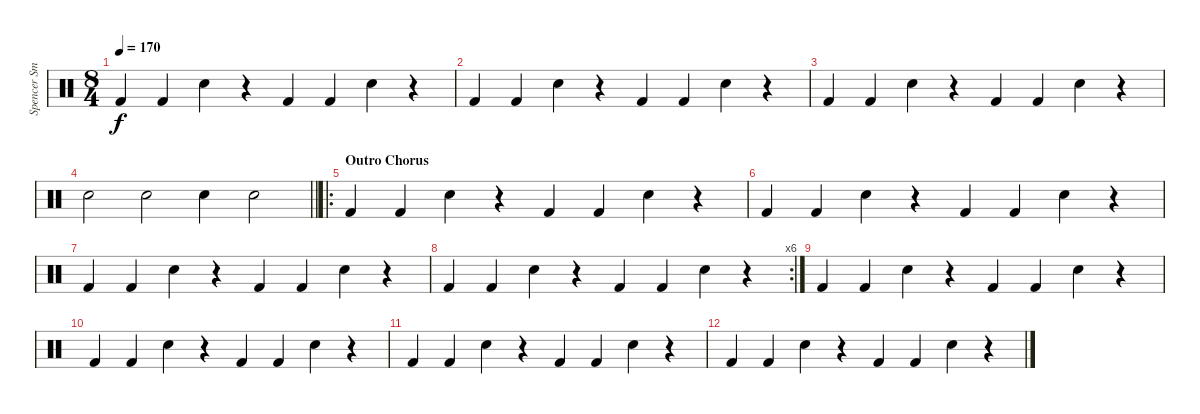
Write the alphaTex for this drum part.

\track ("Spencer Smith" "Spencer Sm") {instrument percussion}
\staff {score}
\articulation defaults
\ts (8 4)
\tempo 170
\clef neutral
\ks c "Kick (hit) 2".4{dy f} "Kick (hit) 2".4 "Snare (hit) 2".4
r.4 "Kick (hit) 2".4 "Kick (hit) 2".4 "Snare (hit) 2".4 r.4 |
"Kick (hit) 2".4 "Kick (hit) 2".4 "Snare (hit) 2".4 r.4 "Kick (hit) 2".4 "Kick (hit) 2".4 "Snare (hit) 2".4 r.4 |
"Kick (hit) 2".4 "Kick (hit) 2".4 "Snare (hit) 2".4 r.4 "Kick (hit) 2".4 "Kick (hit) 2".4 "Snare (hit) 2".4 r.4 |
\barLineRight lightlight "Snare (hit) 2".2 "Snare (hit) 2".2 "Snare (hit) 2".4 "Snare (hit) 2".2
|
\ro
\section ("" "Outro Chorus")
"Kick (hit) 2".4 "Kick (hit) 2".4 "Snare (hit) 2".4 r.4 "Kick (hit) 2".4 "Kick (hit) 2".4 "Snare (hit) 2".4 r.4 |
"Kick (hit) 2".4 "Kick (hit) 2".4 "Snare (hit) 2".4 r.4 "Kick (hit) 2".4 "Kick (hit) 2".4 "Snare (hit) 2".4 r.4 |
"Kick (hit) 2".4 "Kick (hit) 2".4 "Snare (hit) 2".4 r.4 "Kick (hit) 2".4 "Kick (hit) 2".4 "Snare (hit) 2".4 r.4 |
\rc 6 "Kick (hit) 2".4 "Kick (hit) 2".4 "Snare (hit) 2".4
r.4 "Kick (hit) 2".4 "Kick (hit) 2".4 "Snare (hit) 2".4 r.4 |
"Kick (hit) 2".4 "Kick (hit) 2".4 "Snare (hit) 2".4 r.4 "Kick (hit) 2".4 "Kick (hit) 2".4 "Snare (hit) 2".4 r.4 |
"Kick (hit) 2".4 "Kick (hit) 2".4 "Snare (hit) 2".4 r.4 "Kick (hit) 2".4 "Kick (hit) 2".4 "Snare (hit) 2".4 r.4 |
"Kick (hit) 2".4 "Kick (hit) 2".4 "Snare (hit) 2".4 r.4 "Kick (hit) 2".4 "Kick (hit) 2".4 "Snare (hit) 2".4 r.4 |
"Kick (hit) 2".4 "Kick (hit) 2".4 "Snare (hit) 2".4 r.4 "Kick (hit) 2".4 "Kick (hit) 2".4 "Snare (hit) 2".4 r.4
